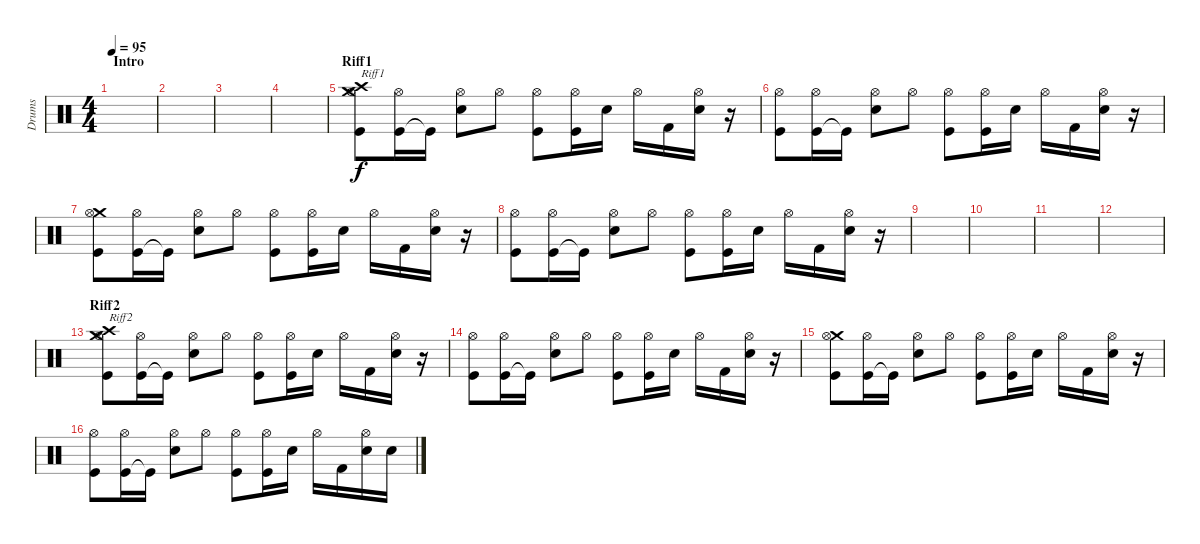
\track ("Drums" "Drums") {instrument percussion}
\staff {score}
\articulation defaults
\ts (4 4)
\section ("" "Intro")
\tempo 95
\clef neutral
\ks c
|
|
|
|
\section ("" "Riff1")
("Crash medium (hit)" "Crash high (hit)" "Kick (hit)" "Hi-Hat (open)").8{txt "Riff1"} ("Kick (hit)" "Hi-Hat (open)").16 "Kick (hit)"{t}.16 ("Snare (hit) 2" "Hi-Hat (open)").8 "Hi-Hat (open)".8 ("Kick (hit)" "Hi-Hat (open)").8 ("Kick (hit)" "Hi-Hat (open)").16 "Snare (hit) 2".16 "Hi-Hat (open)".16 "Kick (hit) 2".16 ("Snare (hit) 2" "Hi-Hat (open)").16 r.16 |
("Kick (hit)" "Hi-Hat (open)").8 ("Kick (hit)" "Hi-Hat (open)").16 "Kick (hit)"{t}.16 ("Snare (hit) 2" "Hi-Hat (open)").8 "Hi-Hat (open)".8 ("Kick (hit)" "Hi-Hat (open)").8 ("Kick (hit)" "Hi-Hat (open)").16 "Snare (hit) 2".16 "Hi-Hat (open)".16 "Kick (hit) 2".16 ("Snare (hit) 2" "Hi-Hat (open)").16 r.16 |
("Crash medium (hit)" "Kick (hit)" "Hi-Hat (open)").8 ("Kick (hit)" "Hi-Hat (open)").16 "Kick (hit)"{t}.16 ("Snare (hit) 2" "Hi-Hat (open)").8 "Hi-Hat (open)".8 ("Kick (hit)" "Hi-Hat (open)").8 ("Kick (hit)" "Hi-Hat (open)").16 "Snare (hit) 2".16 "Hi-Hat (open)".16 "Kick (hit) 2".16 ("Snare (hit) 2" "Hi-Hat (open)").16 r.16 |
("Kick (hit)" "Hi-Hat (open)").8 ("Kick (hit)" "Hi-Hat (open)").16 "Kick (hit)"{t}.16 ("Snare (hit) 2" "Hi-Hat (open)").8 "Hi-Hat (open)".8 ("Kick (hit)" "Hi-Hat (open)").8 ("Kick (hit)" "Hi-Hat (open)").16 "Snare (hit) 2".16 "Hi-Hat (open)".16 "Kick (hit) 2".16 ("Snare (hit) 2" "Hi-Hat (open)").16 r.16 |
|
|
|
|
\section ("" "Riff2")
("Crash medium (hit)" "Crash high (hit)" "Kick (hit)" "Hi-Hat (open)").8{txt "Riff2"} ("Kick (hit)" "Hi-Hat (open)").16 "Kick (hit)"{t}.16 ("Snare (hit) 2" "Hi-Hat (open)").8 "Hi-Hat (open)".8 ("Kick (hit)" "Hi-Hat (open)").8 ("Kick (hit)" "Hi-Hat (open)").16 "Snare (hit) 2".16 "Hi-Hat (open)".16 "Kick (hit) 2".16 ("Snare (hit) 2" "Hi-Hat (open)").16 r.16 |
("Kick (hit)" "Hi-Hat (open)").8 ("Kick (hit)" "Hi-Hat (open)").16 "Kick (hit)"{t}.16 ("Snare (hit) 2" "Hi-Hat (open)").8 "Hi-Hat (open)".8 ("Kick (hit)" "Hi-Hat (open)").8 ("Kick (hit)" "Hi-Hat (open)").16 "Snare (hit) 2".16 "Hi-Hat (open)".16 "Kick (hit) 2".16 ("Snare (hit) 2" "Hi-Hat (open)").16 r.16 |
("Crash medium (hit)" "Kick (hit)" "Hi-Hat (open)").8 ("Kick (hit)" "Hi-Hat (open)").16 "Kick (hit)"{t}.16 ("Snare (hit) 2" "Hi-Hat (open)").8 "Hi-Hat (open)".8 ("Kick (hit)" "Hi-Hat (open)").8 ("Kick (hit)" "Hi-Hat (open)").16 "Snare (hit) 2".16 "Hi-Hat (open)".16 "Kick (hit) 2".16 ("Snare (hit) 2" "Hi-Hat (open)").16 r.16 |
("Kick (hit)" "Hi-Hat (open)").8 ("Kick (hit)" "Hi-Hat (open)").16 "Kick (hit)"{t}.16 ("Snare (hit) 2" "Hi-Hat (open)").8 "Hi-Hat (open)".8 ("Kick (hit)" "Hi-Hat (open)").8 ("Kick (hit)" "Hi-Hat (open)").16 "Snare (hit) 2".16 "Hi-Hat (open)".16 "Kick (hit) 2".16 ("Snare (hit) 2" "Hi-Hat (open)").16 "Snare (hit) 2".16
